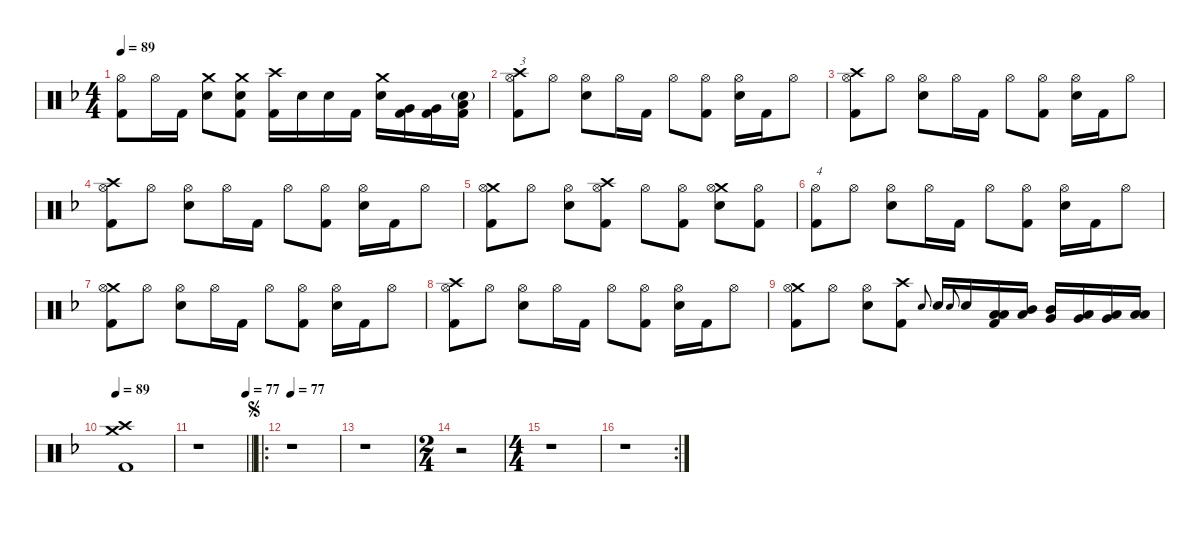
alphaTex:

\defaultSystemsLayout 4
\hideDynamics
\bracketExtendMode nobrackets
\singleTrackTrackNamePolicy hidden
\multiTrackTrackNamePolicy hidden
\firstSystemTrackNameMode fullname
\firstSystemTrackNameOrientation horizontal
\otherSystemsTrackNameOrientation horizontal
\track ("Martin Lopez - Drums" "drm.") {instrument percussion}
\staff {score}
\articulation defaults
\ts (4 4)
\tempo 89
\clef neutral
\ks f
("Hi-Hat (open)"{acc forcenatural} "Kick (hit) 2"{acc forcenatural}).8{dy f beam Down} "Hi-Hat (open)"{acc forcenatural}.16{beam Down} "Kick (hit) 2"{acc forcenatural}.16{beam Down} ("Crash medium (hit)"{acc forcenatural} "Snare (hit) 2"{acc forcenatural}).8{beam Down} ("Crash medium (hit)"{acc forcenatural} "Snare (hit) 2"{acc forcenatural} "Kick (hit) 2"{acc forcenatural}).8{beam Down} ("Crash high (hit)"{acc forcenatural} "Kick (hit) 2"{acc forcenatural}).16{beam Down} "Snare (hit) 2"{acc forcenatural}.16{beam Down} "Snare (hit) 2"{acc forcenatural}.16{beam Down} "Kick (hit) 2"{acc forcenatural}.16{beam Down} ("Crash medium (hit)"{acc forcenatural} "Snare (hit) 2"{acc forcenatural}).16{beam Down} ("Very Low Tom (hit)"{acc forcenatural} "Kick (hit) 2"{acc forcenatural}).16{beam Down} ("Very Low Tom (hit)"{acc forcenatural} "Kick (hit) 2"{acc forcenatural}).16{beam Down} ("Low Floor Tom (hit)"{acc forcenatural} "Snare (hit) 2"{g acc forcenatural} "Kick (hit) 2"{acc forcenatural}).16{beam Down} |
("Crash high (hit)"{acc forcenatural} "Hi-Hat (open)"{acc forcenatural} "Kick (hit) 2"{acc forcenatural}).8{txt "3" beam Down} "Hi-Hat (open)"{acc forcenatural}.8{beam Down} ("Hi-Hat (open)"{acc forcenatural} "Snare (hit) 2"{acc forcenatural}).8{beam Down} "Hi-Hat (open)"{acc forcenatural}.16{beam Down} "Kick (hit) 2"{acc forcenatural}.16{beam Down} "Hi-Hat (open)"{acc forcenatural}.8{beam Down} ("Hi-Hat (open)"{acc forcenatural} "Kick (hit) 2"{acc forcenatural}).8{beam Down} ("Hi-Hat (open)"{acc forcenatural} "Snare (hit) 2"{acc forcenatural}).16{beam Down} "Kick (hit) 2"{acc forcenatural}.16{beam Down} "Hi-Hat (open)"{acc forcenatural}.8{beam Down} |
("Crash high (hit)"{acc forcenatural} "Hi-Hat (open)"{acc forcenatural} "Kick (hit) 2"{acc forcenatural}).8{beam Down} "Hi-Hat (open)"{acc forcenatural}.8{beam Down} ("Hi-Hat (open)"{acc forcenatural} "Snare (hit) 2"{acc forcenatural}).8{beam Down} "Hi-Hat (open)"{acc forcenatural}.16{beam Down} "Kick (hit) 2"{acc forcenatural}.16{beam Down} "Hi-Hat (open)"{acc forcenatural}.8{beam Down} ("Hi-Hat (open)"{acc forcenatural} "Kick (hit) 2"{acc forcenatural}).8{beam Down} ("Hi-Hat (open)"{acc forcenatural} "Snare (hit) 2"{acc forcenatural}).16{beam Down} "Kick (hit) 2"{acc forcenatural}.16{beam Down} "Hi-Hat (open)"{acc forcenatural}.8{beam Down} |
("Crash high (hit)"{acc forcenatural} "Hi-Hat (open)"{acc forcenatural} "Kick (hit) 2"{acc forcenatural}).8{beam Down} "Hi-Hat (open)"{acc forcenatural}.8{beam Down} ("Hi-Hat (open)"{acc forcenatural} "Snare (hit) 2"{acc forcenatural}).8{beam Down} "Hi-Hat (open)"{acc forcenatural}.16{beam Down} "Kick (hit) 2"{acc forcenatural}.16{beam Down} "Hi-Hat (open)"{acc forcenatural}.8{beam Down} ("Hi-Hat (open)"{acc forcenatural} "Kick (hit) 2"{acc forcenatural}).8{beam Down} ("Hi-Hat (open)"{acc forcenatural} "Snare (hit) 2"{acc forcenatural}).16{beam Down} "Kick (hit) 2"{acc forcenatural}.16{beam Down} "Hi-Hat (open)"{acc forcenatural}.8{beam Down} |
("Crash medium (hit)"{acc forcenatural} "Hi-Hat (open)"{acc forcenatural} "Kick (hit) 2"{acc forcenatural}).8{beam Down} "Hi-Hat (open)"{acc forcenatural}.8{beam Down} ("Hi-Hat (open)"{acc forcenatural} "Snare (hit) 2"{acc forcenatural}).8{beam Down} ("Crash high (hit)"{acc forcenatural} "Hi-Hat (open)"{acc forcenatural} "Kick (hit) 2"{acc forcenatural}).8{beam Down} "Hi-Hat (open)"{acc forcenatural}.8{beam Down} ("Hi-Hat (open)"{acc forcenatural} "Kick (hit) 2"{acc forcenatural}).8{beam Down} ("Crash medium (hit)"{acc forcenatural} "Hi-Hat (open)"{acc forcenatural} "Snare (hit) 2"{acc forcenatural}).8{beam Down} ("Hi-Hat (open)"{acc forcenatural} "Kick (hit) 2"{acc forcenatural}).8{beam Down} |
("Hi-Hat (open)"{acc forcenatural} "Kick (hit) 2"{acc forcenatural}).8{txt "4" beam Down} "Hi-Hat (open)"{acc forcenatural}.8{beam Down} ("Hi-Hat (open)"{acc forcenatural} "Snare (hit) 2"{acc forcenatural}).8{beam Down} "Hi-Hat (open)"{acc forcenatural}.16{beam Down} "Kick (hit) 2"{acc forcenatural}.16{beam Down} "Hi-Hat (open)"{acc forcenatural}.8{beam Down} ("Hi-Hat (open)"{acc forcenatural} "Kick (hit) 2"{acc forcenatural}).8{beam Down} ("Hi-Hat (open)"{acc forcenatural} "Snare (hit) 2"{acc forcenatural}).16{beam Down} "Kick (hit) 2"{acc forcenatural}.16{beam Down} "Hi-Hat (open)"{acc forcenatural}.8{beam Down} |
("Crash medium (hit)"{acc forcenatural} "Hi-Hat (open)"{acc forcenatural} "Kick (hit) 2"{acc forcenatural}).8{beam Down} "Hi-Hat (open)"{acc forcenatural}.8{beam Down} ("Hi-Hat (open)"{acc forcenatural} "Snare (hit) 2"{acc forcenatural}).8{beam Down} "Hi-Hat (open)"{acc forcenatural}.16{beam Down} "Kick (hit) 2"{acc forcenatural}.16{beam Down} "Hi-Hat (open)"{acc forcenatural}.8{beam Down} ("Hi-Hat (open)"{acc forcenatural} "Kick (hit) 2"{acc forcenatural}).8{beam Down} ("Hi-Hat (open)"{acc forcenatural} "Snare (hit) 2"{acc forcenatural}).16{beam Down} "Kick (hit) 2"{acc forcenatural}.16{beam Down} "Hi-Hat (open)"{acc forcenatural}.8{beam Down} |
("Crash high (hit)"{acc forcenatural} "Hi-Hat (open)"{acc forcenatural} "Kick (hit) 2"{acc forcenatural}).8{beam Down} "Hi-Hat (open)"{acc forcenatural}.8{beam Down} ("Hi-Hat (open)"{acc forcenatural} "Snare (hit) 2"{acc forcenatural}).8{beam Down} "Hi-Hat (open)"{acc forcenatural}.16{beam Down} "Kick (hit) 2"{acc forcenatural}.16{beam Down} "Hi-Hat (open)"{acc forcenatural}.8{beam Down} ("Hi-Hat (open)"{acc forcenatural} "Kick (hit) 2"{acc forcenatural}).8{beam Down} ("Hi-Hat (open)"{acc forcenatural} "Snare (hit) 2"{acc forcenatural}).16{beam Down} "Kick (hit) 2"{acc forcenatural}.16{beam Down} "Hi-Hat (open)"{acc forcenatural}.8{beam Down} |
("Crash medium (hit)"{acc forcenatural} "Hi-Hat (open)"{acc forcenatural} "Kick (hit) 2"{acc forcenatural}).8{beam Down} "Hi-Hat (open)"{acc forcenatural}.8{beam Down} ("Hi-Hat (open)"{acc forcenatural} "Snare (hit) 2"{acc forcenatural}).8{beam Down} ("Crash high (hit)"{acc forcenatural} "Kick (hit) 2"{acc forcenatural}).8{beam Down} "Electric Snare (hit)"{acc forcenatural}.8{gr onbeat dy mf beam Up} "Snare (hit) 2"{acc forcenatural}.16{dy f beam Up} "Electric Snare (hit)"{acc forcenatural}.8{gr onbeat dy mf beam Up} "Snare (hit) 2"{acc forcenatural}.16{dy f beam Up} ("Low Tom (hit)"{acc forcenatural} "Low Tom (hit)"{acc forcenatural} "Kick (hit) 2"{acc forcenatural}).16{beam Up} ("Mid Tom (hit)"{acc forcenatural} "Low Tom (hit)"{acc forcenatural}).16{beam Up} ("Mid Tom (hit)"{acc forcenatural} "Very Low Tom (hit)"{acc forcenatural}).16{beam Up} ("Low Tom (hit)"{acc forcenatural} "Very Low Tom (hit)"{acc forcenatural}).16{beam Up} ("Very Low Tom (hit)"{acc forcenatural} "Low Floor Tom (hit)"{acc forcenatural}).16{beam Up} ("Low Floor Tom (hit)"{acc forcenatural} "Low Floor Tom (hit)"{acc forcenatural}).16{beam Up} |
\tempo 89
("Crash medium (hit)"{acc forcenatural} "Crash high (hit)"{acc forcenatural} "Kick (hit) 2"{acc forcenatural}).1{beam Down} |
\tempo (77 1)
\barLineRight lightlight
r.1{beam Down} |
\ro
\jump segno
\tempo 77
r.1{beam Down} |
r.1{beam Down} |
\ts (2 4)
\beaming (8 2 2 2 2)
r.2{beam Down} |
\ts (4 4)
\beaming (8 2 2 2 2)
r.1{beam Down} |
\rc 2
r.1{beam Down}
